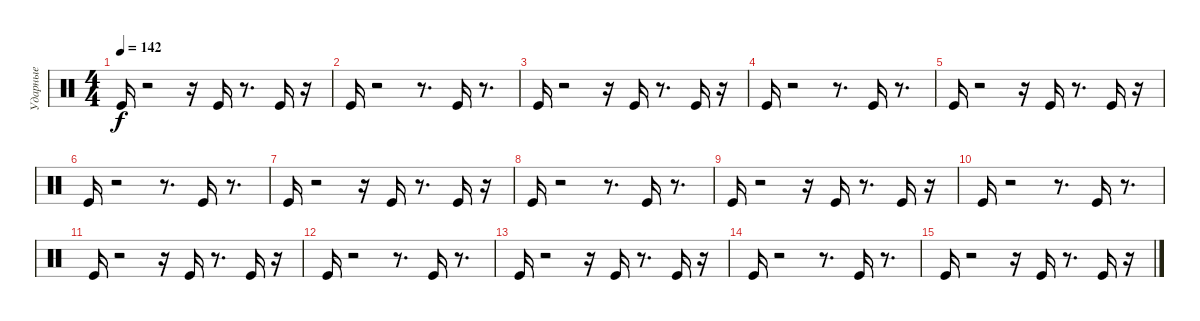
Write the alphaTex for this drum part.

\track ("Ударные" "Ударные") {instrument percussion}
\staff {score}
\articulation defaults
\ts (4 4)
\tempo 142
\clef neutral
\ks c "Kick (hit)".16{dy f}
r.2 r.16 "Kick (hit)".16 r.8{d} "Kick (hit)".16 r.16 |
"Kick (hit)".16 r.2 r.8{d} "Kick (hit)".16 r.8{d} |
"Kick (hit)".16 r.2 r.16 "Kick (hit)".16 r.8{d} "Kick (hit)".16 r.16 |
"Kick (hit)".16 r.2 r.8{d} "Kick (hit)".16 r.8{d} |
"Kick (hit)".16 r.2 r.16 "Kick (hit)".16 r.8{d} "Kick (hit)".16 r.16 |
"Kick (hit)".16 r.2 r.8{d} "Kick (hit)".16 r.8{d} |
"Kick (hit)".16 r.2 r.16 "Kick (hit)".16 r.8{d} "Kick (hit)".16 r.16 |
"Kick (hit)".16 r.2 r.8{d} "Kick (hit)".16 r.8{d} |
"Kick (hit)".16 r.2 r.16 "Kick (hit)".16 r.8{d} "Kick (hit)".16 r.16 |
"Kick (hit)".16 r.2 r.8{d} "Kick (hit)".16 r.8{d} |
"Kick (hit)".16 r.2 r.16 "Kick (hit)".16 r.8{d} "Kick (hit)".16 r.16 |
"Kick (hit)".16 r.2 r.8{d} "Kick (hit)".16 r.8{d} |
"Kick (hit)".16 r.2 r.16 "Kick (hit)".16 r.8{d} "Kick (hit)".16 r.16 |
"Kick (hit)".16 r.2 r.8{d} "Kick (hit)".16 r.8{d} |
"Kick (hit)".16 r.2 r.16 "Kick (hit)".16 r.8{d} "Kick (hit)".16 r.16
